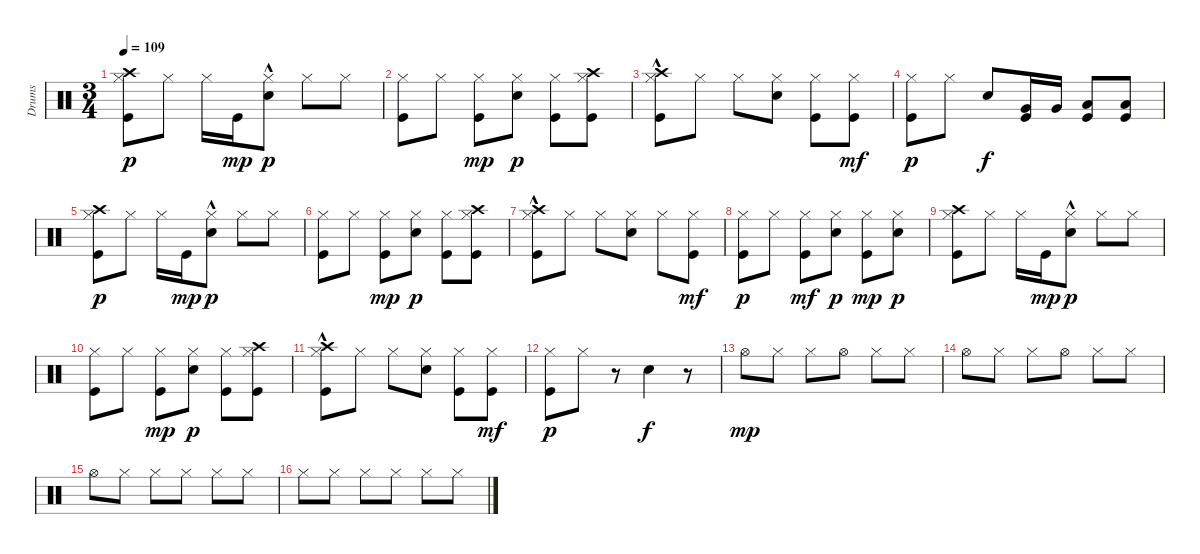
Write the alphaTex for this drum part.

\track ("Drums" "Drums") {instrument percussion}
\staff {score}
\articulation defaults
\ts (3 4)
\tempo 109
\clef neutral
\ks c
("Crash high (hit)" "Hi-Hat (closed)" "Kick (hit)").8{dy p} "Hi-Hat (closed)".8 "Hi-Hat (closed)".16 "Kick (hit)".16{dy mp} ("Hi-Hat (closed)" "Electric Snare (hit)"{hac}).8{dy p} "Hi-Hat (closed)".8 "Hi-Hat (closed)".8 |
("Hi-Hat (closed)" "Kick (hit)").8 "Hi-Hat (closed)".8 ("Hi-Hat (closed)" "Kick (hit)").8{dy mp} ("Hi-Hat (closed)" "Electric Snare (hit)").8{dy p} ("Hi-Hat (closed)" "Kick (hit)").8 ("Crash high (hit)" "Hi-Hat (closed)" "Kick (hit)").8 |
("Crash high (hit)" "Hi-Hat (closed)" "Kick (hit)"{hac}).8 "Hi-Hat (closed)".8 "Hi-Hat (closed)".8 ("Hi-Hat (closed)" "Electric Snare (hit)").8 ("Hi-Hat (closed)" "Kick (hit)").8 ("Hi-Hat (closed)" "Kick (hit)").8{dy mf} |
("Hi-Hat (closed)" "Kick (hit)").8{dy p} "Hi-Hat (closed)".8 "Electric Snare (hit)".8{dy f} ("Kick (hit)" "Very Low Tom (hit)").16 "Very Low Tom (hit)".16 ("Kick (hit)" "Low Floor Tom (hit)").8 ("Kick (hit)" "Low Floor Tom (hit)").8 |
("Crash high (hit)" "Hi-Hat (closed)" "Kick (hit)").8{dy p} "Hi-Hat (closed)".8 "Hi-Hat (closed)".16 "Kick (hit)".16{dy mp} ("Hi-Hat (closed)" "Electric Snare (hit)"{hac}).8{dy p} "Hi-Hat (closed)".8 "Hi-Hat (closed)".8 |
("Hi-Hat (closed)" "Kick (hit)").8 "Hi-Hat (closed)".8 ("Hi-Hat (closed)" "Kick (hit)").8{dy mp} ("Hi-Hat (closed)" "Electric Snare (hit)").8{dy p} ("Hi-Hat (closed)" "Kick (hit)").8 ("Crash high (hit)" "Hi-Hat (closed)" "Kick (hit)").8 |
("Crash high (hit)" "Hi-Hat (closed)" "Kick (hit)"{hac}).8 "Hi-Hat (closed)".8 "Hi-Hat (closed)".8 ("Hi-Hat (closed)" "Electric Snare (hit)").8 "Hi-Hat (closed)".8 ("Hi-Hat (closed)" "Kick (hit)").8{dy mf} |
("Hi-Hat (closed)" "Kick (hit)").8{dy p} "Hi-Hat (closed)".8 ("Hi-Hat (closed)" "Kick (hit)").8{dy mf} ("Hi-Hat (closed)" "Electric Snare (hit)").8{dy p} ("Hi-Hat (closed)" "Kick (hit)").8{dy mp} ("Hi-Hat (closed)" "Electric Snare (hit)").8{dy p} |
("Crash high (hit)" "Hi-Hat (closed)" "Kick (hit)").8 "Hi-Hat (closed)".8 "Hi-Hat (closed)".16 "Kick (hit)".16{dy mp} ("Hi-Hat (closed)" "Electric Snare (hit)"{hac}).8{dy p} "Hi-Hat (closed)".8 "Hi-Hat (closed)".8 |
("Hi-Hat (closed)" "Kick (hit)").8 "Hi-Hat (closed)".8 ("Hi-Hat (closed)" "Kick (hit)").8{dy mp} ("Hi-Hat (closed)" "Electric Snare (hit)").8{dy p} ("Hi-Hat (closed)" "Kick (hit)").8 ("Crash high (hit)" "Hi-Hat (closed)" "Kick (hit)").8 |
("Crash high (hit)" "Hi-Hat (closed)" "Kick (hit)"{hac}).8 "Hi-Hat (closed)".8 "Hi-Hat (closed)".8 ("Hi-Hat (closed)" "Electric Snare (hit)").8 ("Hi-Hat (closed)" "Kick (hit)").8 ("Hi-Hat (closed)" "Kick (hit)").8{dy mf} |
("Hi-Hat (closed)" "Kick (hit)").8{dy p} "Hi-Hat (closed)".8 r.8 "Electric Snare (hit)".4{dy f} r.8 |
"Hi-Hat (open)".8{dy mp} "Hi-Hat (closed)".8 "Hi-Hat (closed)".8 "Hi-Hat (open)".8 "Hi-Hat (closed)".8 "Hi-Hat (closed)".8 |
"Hi-Hat (open)".8 "Hi-Hat (closed)".8 "Hi-Hat (closed)".8 "Hi-Hat (open)".8 "Hi-Hat (closed)".8 "Hi-Hat (closed)".8 |
"Hi-Hat (open)".8 "Hi-Hat (closed)".8 "Hi-Hat (closed)".8 "Hi-Hat (closed)".8 "Hi-Hat (closed)".8 "Hi-Hat (closed)".8 |
"Hi-Hat (closed)".8 "Hi-Hat (closed)".8 "Hi-Hat (closed)".8 "Hi-Hat (closed)".8 "Hi-Hat (closed)".8 "Hi-Hat (closed)".8
